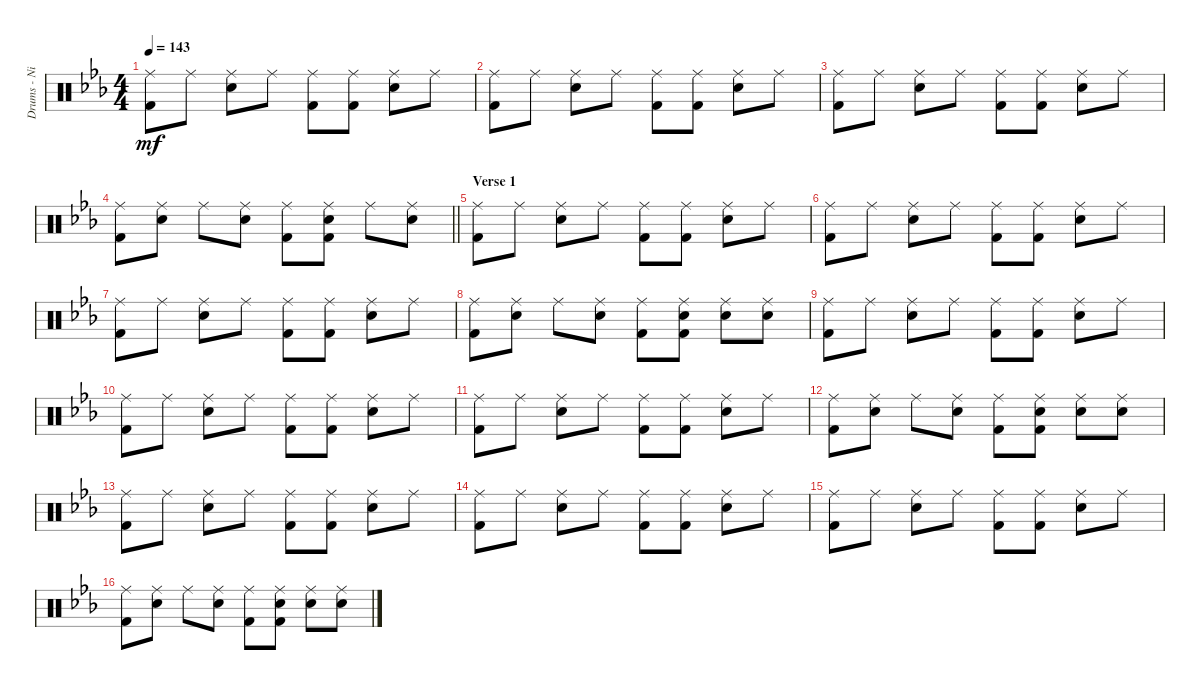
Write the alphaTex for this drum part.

\track ("Drums - Nigel Olsen" "Drums - Ni") {instrument percussion}
\staff {score}
\articulation defaults
\ts (4 4)
\tempo 143
\clef neutral
\ks cminor
("Ride (middle)" "Kick (hit) 2").8{dy mf} "Ride (middle)".8 ("Ride (middle)" "Snare (hit) 2").8 "Ride (middle)".8 ("Ride (middle)" "Kick (hit) 2").8 ("Ride (middle)" "Kick (hit) 2").8 ("Ride (middle)" "Snare (hit) 2").8 "Ride (middle)".8 |
("Ride (middle)" "Kick (hit) 2").8 "Ride (middle)".8 ("Ride (middle)" "Snare (hit) 2").8 "Ride (middle)".8 ("Ride (middle)" "Kick (hit) 2").8 ("Ride (middle)" "Kick (hit) 2").8 ("Ride (middle)" "Snare (hit) 2").8 "Ride (middle)".8 |
("Ride (middle)" "Kick (hit) 2").8 "Ride (middle)".8 ("Ride (middle)" "Snare (hit) 2").8 "Ride (middle)".8 ("Ride (middle)" "Kick (hit) 2").8 ("Ride (middle)" "Kick (hit) 2").8 ("Ride (middle)" "Snare (hit) 2").8 "Ride (middle)".8 |
\barLineRight lightlight
("Ride (middle)" "Kick (hit) 2").8 ("Ride (middle)" "Snare (hit) 2").8 "Ride (middle)".8 ("Ride (middle)" "Snare (hit) 2").8 ("Ride (middle)" "Kick (hit) 2").8 ("Ride (middle)" "Snare (hit) 2" "Kick (hit) 2").8 "Ride (middle)".8 ("Ride (middle)" "Snare (hit) 2").8 |
\section ("" "Verse 1")
("Ride (middle)" "Kick (hit) 2").8 "Ride (middle)".8 ("Ride (middle)" "Snare (hit) 2").8 "Ride (middle)".8 ("Ride (middle)" "Kick (hit) 2").8 ("Ride (middle)" "Kick (hit) 2").8 ("Ride (middle)" "Snare (hit) 2").8 "Ride (middle)".8 |
("Ride (middle)" "Kick (hit) 2").8 "Ride (middle)".8 ("Ride (middle)" "Snare (hit) 2").8 "Ride (middle)".8 ("Ride (middle)" "Kick (hit) 2").8 ("Ride (middle)" "Kick (hit) 2").8 ("Ride (middle)" "Snare (hit) 2").8 "Ride (middle)".8 |
("Ride (middle)" "Kick (hit) 2").8 "Ride (middle)".8 ("Ride (middle)" "Snare (hit) 2").8 "Ride (middle)".8 ("Ride (middle)" "Kick (hit) 2").8 ("Ride (middle)" "Kick (hit) 2").8 ("Ride (middle)" "Snare (hit) 2").8 "Ride (middle)".8 |
("Ride (middle)" "Kick (hit) 2").8 ("Ride (middle)" "Snare (hit) 2").8 "Ride (middle)".8 ("Ride (middle)" "Snare (hit) 2").8 ("Ride (middle)" "Kick (hit) 2").8 ("Ride (middle)" "Snare (hit) 2" "Kick (hit) 2").8 ("Ride (middle)" "Snare (hit) 2").8 ("Ride (middle)" "Snare (hit) 2").8 |
("Ride (middle)" "Kick (hit) 2").8 "Ride (middle)".8 ("Ride (middle)" "Snare (hit) 2").8 "Ride (middle)".8 ("Ride (middle)" "Kick (hit) 2").8 ("Ride (middle)" "Kick (hit) 2").8 ("Ride (middle)" "Snare (hit) 2").8 "Ride (middle)".8 |
("Ride (middle)" "Kick (hit) 2").8 "Ride (middle)".8 ("Ride (middle)" "Snare (hit) 2").8 "Ride (middle)".8 ("Ride (middle)" "Kick (hit) 2").8 ("Ride (middle)" "Kick (hit) 2").8 ("Ride (middle)" "Snare (hit) 2").8 "Ride (middle)".8 |
("Ride (middle)" "Kick (hit) 2").8 "Ride (middle)".8 ("Ride (middle)" "Snare (hit) 2").8 "Ride (middle)".8 ("Ride (middle)" "Kick (hit) 2").8 ("Ride (middle)" "Kick (hit) 2").8 ("Ride (middle)" "Snare (hit) 2").8 "Ride (middle)".8 |
("Ride (middle)" "Kick (hit) 2").8 ("Ride (middle)" "Snare (hit) 2").8 "Ride (middle)".8 ("Ride (middle)" "Snare (hit) 2").8 ("Ride (middle)" "Kick (hit) 2").8 ("Ride (middle)" "Snare (hit) 2" "Kick (hit) 2").8 ("Ride (middle)" "Snare (hit) 2").8 ("Ride (middle)" "Snare (hit) 2").8 |
("Ride (middle)" "Kick (hit) 2").8 "Ride (middle)".8 ("Ride (middle)" "Snare (hit) 2").8 "Ride (middle)".8 ("Ride (middle)" "Kick (hit) 2").8 ("Ride (middle)" "Kick (hit) 2").8 ("Ride (middle)" "Snare (hit) 2").8 "Ride (middle)".8 |
("Ride (middle)" "Kick (hit) 2").8 "Ride (middle)".8 ("Ride (middle)" "Snare (hit) 2").8 "Ride (middle)".8 ("Ride (middle)" "Kick (hit) 2").8 ("Ride (middle)" "Kick (hit) 2").8 ("Ride (middle)" "Snare (hit) 2").8 "Ride (middle)".8 |
("Ride (middle)" "Kick (hit) 2").8 "Ride (middle)".8 ("Ride (middle)" "Snare (hit) 2").8 "Ride (middle)".8 ("Ride (middle)" "Kick (hit) 2").8 ("Ride (middle)" "Kick (hit) 2").8 ("Ride (middle)" "Snare (hit) 2").8 "Ride (middle)".8 |
("Ride (middle)" "Kick (hit) 2").8 ("Ride (middle)" "Snare (hit) 2").8 "Ride (middle)".8 ("Ride (middle)" "Snare (hit) 2").8 ("Ride (middle)" "Kick (hit) 2").8 ("Ride (middle)" "Snare (hit) 2" "Kick (hit) 2").8 ("Ride (middle)" "Snare (hit) 2").8 ("Ride (middle)" "Snare (hit) 2").8
